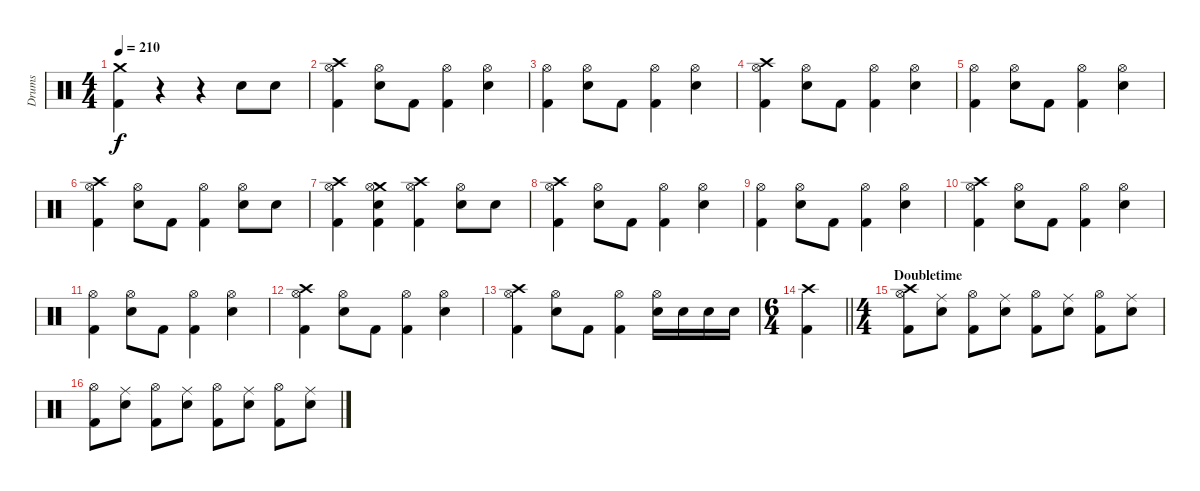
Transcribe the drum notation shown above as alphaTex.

\track ("Drums" "Drums") {instrument percussion}
\staff {score}
\articulation defaults
\ts (4 4)
\tempo 210
\clef neutral
\ks c
("Crash medium (hit)" "Kick (hit) 2").4{dy f} r.4 r.4 "Snare (hit) 2".8 "Snare (hit) 2".8 |
("Crash high (hit)" "Hi-Hat (open)" "Kick (hit) 2").4 ("Hi-Hat (open)" "Snare (hit) 2").8 "Kick (hit) 2".8 ("Hi-Hat (open)" "Kick (hit) 2").4 ("Hi-Hat (open)" "Snare (hit) 2").4 |
("Hi-Hat (open)" "Kick (hit) 2").4 ("Hi-Hat (open)" "Snare (hit) 2").8 "Kick (hit) 2".8 ("Hi-Hat (open)" "Kick (hit) 2").4 ("Hi-Hat (open)" "Snare (hit) 2").4 |
("Crash high (hit)" "Hi-Hat (open)" "Kick (hit) 2").4 ("Hi-Hat (open)" "Snare (hit) 2").8 "Kick (hit) 2".8 ("Hi-Hat (open)" "Kick (hit) 2").4 ("Hi-Hat (open)" "Snare (hit) 2").4 |
("Hi-Hat (open)" "Kick (hit) 2").4 ("Hi-Hat (open)" "Snare (hit) 2").8 "Kick (hit) 2".8 ("Hi-Hat (open)" "Kick (hit) 2").4 ("Hi-Hat (open)" "Snare (hit) 2").4 |
("Crash high (hit)" "Hi-Hat (open)" "Kick (hit) 2").4 ("Hi-Hat (open)" "Snare (hit) 2").8 "Kick (hit) 2".8 ("Hi-Hat (open)" "Kick (hit) 2").4 ("Hi-Hat (open)" "Snare (hit) 2").8 "Snare (hit) 2".8 |
("Crash high (hit)" "Hi-Hat (open)" "Kick (hit) 2").4 ("Crash medium (hit)" "Hi-Hat (open)" "Snare (hit) 2" "Kick (hit) 2").4 ("Crash high (hit)" "Hi-Hat (open)" "Kick (hit) 2").4 ("Hi-Hat (open)" "Snare (hit) 2").8 "Snare (hit) 2".8 |
("Crash high (hit)" "Hi-Hat (open)" "Kick (hit) 2").4 ("Hi-Hat (open)" "Snare (hit) 2").8 "Kick (hit) 2".8 ("Hi-Hat (open)" "Kick (hit) 2").4 ("Hi-Hat (open)" "Snare (hit) 2").4 |
("Hi-Hat (open)" "Kick (hit) 2").4 ("Hi-Hat (open)" "Snare (hit) 2").8 "Kick (hit) 2".8 ("Hi-Hat (open)" "Kick (hit) 2").4 ("Hi-Hat (open)" "Snare (hit) 2").4 |
("Crash high (hit)" "Hi-Hat (open)" "Kick (hit) 2").4 ("Hi-Hat (open)" "Snare (hit) 2").8 "Kick (hit) 2".8 ("Hi-Hat (open)" "Kick (hit) 2").4 ("Hi-Hat (open)" "Snare (hit) 2").4 |
("Hi-Hat (open)" "Kick (hit) 2").4 ("Hi-Hat (open)" "Snare (hit) 2").8 "Kick (hit) 2".8 ("Hi-Hat (open)" "Kick (hit) 2").4 ("Hi-Hat (open)" "Snare (hit) 2").4 |
("Crash high (hit)" "Hi-Hat (open)" "Kick (hit) 2").4 ("Hi-Hat (open)" "Snare (hit) 2").8 "Kick (hit) 2".8 ("Hi-Hat (open)" "Kick (hit) 2").4 ("Hi-Hat (open)" "Snare (hit) 2").4 |
("Crash high (hit)" "Hi-Hat (open)" "Kick (hit) 2").4 ("Hi-Hat (open)" "Snare (hit) 2").8 "Kick (hit) 2".8 ("Hi-Hat (open)" "Kick (hit) 2").4 ("Hi-Hat (open)" "Snare (hit) 2").16 "Snare (hit) 2".16 "Snare (hit) 2".16 "Snare (hit) 2".16 |
\ts (6 4)
\barLineRight lightlight
("Crash high (hit)" "Kick (hit) 2").4 |
\ts (4 4)
\section ("" "Doubletime")
("Crash high (hit)" "Hi-Hat (open)" "Kick (hit) 2").8 ("Ride (middle)" "Snare (hit) 2").8 ("Hi-Hat (open)" "Kick (hit) 2").8 ("Ride (middle)" "Snare (hit) 2").8 ("Hi-Hat (open)" "Kick (hit) 2").8 ("Ride (middle)" "Snare (hit) 2").8 ("Hi-Hat (open)" "Kick (hit) 2").8 ("Ride (middle)" "Snare (hit) 2").8 |
("Hi-Hat (open)" "Kick (hit) 2").8 ("Ride (middle)" "Snare (hit) 2").8 ("Hi-Hat (open)" "Kick (hit) 2").8 ("Ride (middle)" "Snare (hit) 2").8 ("Hi-Hat (open)" "Kick (hit) 2").8 ("Ride (middle)" "Snare (hit) 2").8 ("Hi-Hat (open)" "Kick (hit) 2").8 ("Ride (middle)" "Snare (hit) 2").8
